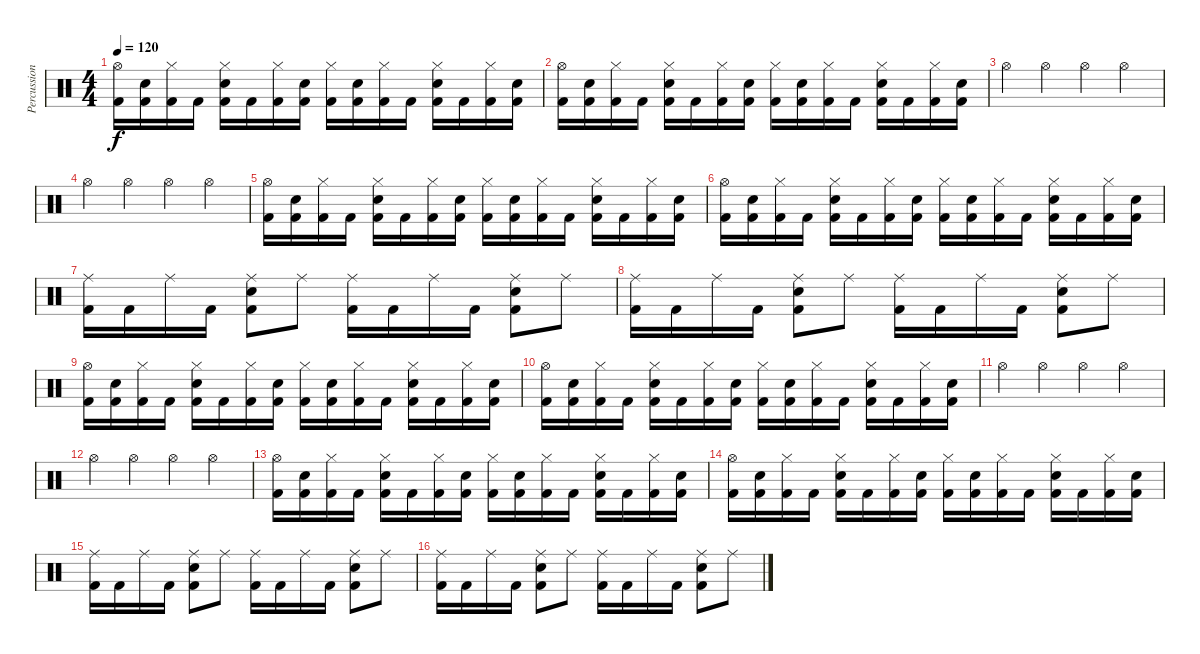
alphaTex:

\track ("Percussions" "Percussion") {instrument percussion}
\staff {score}
\articulation defaults
\ts (4 4)
\tempo 120
\clef neutral
\ks c
("Hi-Hat (open)" "Kick (hit) 2").16{dy f} ("Electric Snare (hit)" "Kick (hit) 2").16 ("Hi-Hat (closed)" "Kick (hit) 2").16 "Kick (hit) 2".16 ("Electric Snare (hit)" "Hi-Hat (closed)" "Kick (hit) 2").16 "Kick (hit) 2".16 ("Hi-Hat (closed)" "Kick (hit) 2").16 ("Electric Snare (hit)" "Kick (hit) 2").16 ("Hi-Hat (closed)" "Kick (hit) 2").16 ("Electric Snare (hit)" "Kick (hit) 2").16 ("Hi-Hat (closed)" "Kick (hit) 2").16 "Kick (hit) 2".16 ("Electric Snare (hit)" "Hi-Hat (closed)" "Kick (hit) 2").16 "Kick (hit) 2".16 ("Hi-Hat (closed)" "Kick (hit) 2").16 ("Electric Snare (hit)" "Kick (hit) 2").16 |
("Hi-Hat (open)" "Kick (hit) 2").16 ("Electric Snare (hit)" "Kick (hit) 2").16 ("Hi-Hat (closed)" "Kick (hit) 2").16 "Kick (hit) 2".16 ("Electric Snare (hit)" "Hi-Hat (closed)" "Kick (hit) 2").16 "Kick (hit) 2".16 ("Hi-Hat (closed)" "Kick (hit) 2").16 ("Electric Snare (hit)" "Kick (hit) 2").16 ("Hi-Hat (closed)" "Kick (hit) 2").16 ("Electric Snare (hit)" "Kick (hit) 2").16 ("Hi-Hat (closed)" "Kick (hit) 2").16 "Kick (hit) 2".16 ("Electric Snare (hit)" "Hi-Hat (closed)" "Kick (hit) 2").16 "Kick (hit) 2".16 ("Hi-Hat (closed)" "Kick (hit) 2").16 ("Electric Snare (hit)" "Kick (hit) 2").16 |
"Hi-Hat (open)".4 "Hi-Hat (open)".4 "Hi-Hat (open)".4 "Hi-Hat (open)".4 |
"Hi-Hat (open)".4 "Hi-Hat (open)".4 "Hi-Hat (open)".4 "Hi-Hat (open)".4 |
("Hi-Hat (open)" "Kick (hit) 2").16 ("Electric Snare (hit)" "Kick (hit) 2").16 ("Hi-Hat (closed)" "Kick (hit) 2").16 "Kick (hit) 2".16 ("Electric Snare (hit)" "Hi-Hat (closed)" "Kick (hit) 2").16 "Kick (hit) 2".16 ("Hi-Hat (closed)" "Kick (hit) 2").16 ("Electric Snare (hit)" "Kick (hit) 2").16 ("Hi-Hat (closed)" "Kick (hit) 2").16 ("Electric Snare (hit)" "Kick (hit) 2").16 ("Hi-Hat (closed)" "Kick (hit) 2").16 "Kick (hit) 2".16 ("Electric Snare (hit)" "Hi-Hat (closed)" "Kick (hit) 2").16 "Kick (hit) 2".16 ("Hi-Hat (closed)" "Kick (hit) 2").16 ("Electric Snare (hit)" "Kick (hit) 2").16 |
("Hi-Hat (open)" "Kick (hit) 2").16 ("Electric Snare (hit)" "Kick (hit) 2").16 ("Hi-Hat (closed)" "Kick (hit) 2").16 "Kick (hit) 2".16 ("Electric Snare (hit)" "Hi-Hat (closed)" "Kick (hit) 2").16 "Kick (hit) 2".16 ("Hi-Hat (closed)" "Kick (hit) 2").16 ("Electric Snare (hit)" "Kick (hit) 2").16 ("Hi-Hat (closed)" "Kick (hit) 2").16 ("Electric Snare (hit)" "Kick (hit) 2").16 ("Hi-Hat (closed)" "Kick (hit) 2").16 "Kick (hit) 2".16 ("Electric Snare (hit)" "Hi-Hat (closed)" "Kick (hit) 2").16 "Kick (hit) 2".16 ("Hi-Hat (closed)" "Kick (hit) 2").16 ("Electric Snare (hit)" "Kick (hit) 2").16 |
("Ride (middle)" "Kick (hit) 2").16 "Kick (hit) 2".16 "Ride (middle)".16 "Kick (hit) 2".16 ("Electric Snare (hit)" "Ride (middle)" "Kick (hit) 2").8 "Ride (middle)".8 ("Ride (middle)" "Kick (hit) 2").16 "Kick (hit) 2".16 "Ride (middle)".16 "Kick (hit) 2".16 ("Electric Snare (hit)" "Ride (middle)" "Kick (hit) 2").8 "Ride (middle)".8 |
("Ride (middle)" "Kick (hit) 2").16 "Kick (hit) 2".16 "Ride (middle)".16 "Kick (hit) 2".16 ("Electric Snare (hit)" "Ride (middle)" "Kick (hit) 2").8 "Ride (middle)".8 ("Ride (middle)" "Kick (hit) 2").16 "Kick (hit) 2".16 "Ride (middle)".16 "Kick (hit) 2".16 ("Electric Snare (hit)" "Ride (middle)" "Kick (hit) 2").8 "Ride (middle)".8 |
("Hi-Hat (open)" "Kick (hit) 2").16 ("Electric Snare (hit)" "Kick (hit) 2").16 ("Hi-Hat (closed)" "Kick (hit) 2").16 "Kick (hit) 2".16 ("Electric Snare (hit)" "Hi-Hat (closed)" "Kick (hit) 2").16 "Kick (hit) 2".16 ("Hi-Hat (closed)" "Kick (hit) 2").16 ("Electric Snare (hit)" "Kick (hit) 2").16 ("Hi-Hat (closed)" "Kick (hit) 2").16 ("Electric Snare (hit)" "Kick (hit) 2").16 ("Hi-Hat (closed)" "Kick (hit) 2").16 "Kick (hit) 2".16 ("Electric Snare (hit)" "Hi-Hat (closed)" "Kick (hit) 2").16 "Kick (hit) 2".16 ("Hi-Hat (closed)" "Kick (hit) 2").16 ("Electric Snare (hit)" "Kick (hit) 2").16 |
("Hi-Hat (open)" "Kick (hit) 2").16 ("Electric Snare (hit)" "Kick (hit) 2").16 ("Hi-Hat (closed)" "Kick (hit) 2").16 "Kick (hit) 2".16 ("Electric Snare (hit)" "Hi-Hat (closed)" "Kick (hit) 2").16 "Kick (hit) 2".16 ("Hi-Hat (closed)" "Kick (hit) 2").16 ("Electric Snare (hit)" "Kick (hit) 2").16 ("Hi-Hat (closed)" "Kick (hit) 2").16 ("Electric Snare (hit)" "Kick (hit) 2").16 ("Hi-Hat (closed)" "Kick (hit) 2").16 "Kick (hit) 2".16 ("Electric Snare (hit)" "Hi-Hat (closed)" "Kick (hit) 2").16 "Kick (hit) 2".16 ("Hi-Hat (closed)" "Kick (hit) 2").16 ("Electric Snare (hit)" "Kick (hit) 2").16 |
"Hi-Hat (open)".4 "Hi-Hat (open)".4 "Hi-Hat (open)".4 "Hi-Hat (open)".4 |
"Hi-Hat (open)".4 "Hi-Hat (open)".4 "Hi-Hat (open)".4 "Hi-Hat (open)".4 |
("Hi-Hat (open)" "Kick (hit) 2").16 ("Electric Snare (hit)" "Kick (hit) 2").16 ("Hi-Hat (closed)" "Kick (hit) 2").16 "Kick (hit) 2".16 ("Electric Snare (hit)" "Hi-Hat (closed)" "Kick (hit) 2").16 "Kick (hit) 2".16 ("Hi-Hat (closed)" "Kick (hit) 2").16 ("Electric Snare (hit)" "Kick (hit) 2").16 ("Hi-Hat (closed)" "Kick (hit) 2").16 ("Electric Snare (hit)" "Kick (hit) 2").16 ("Hi-Hat (closed)" "Kick (hit) 2").16 "Kick (hit) 2".16 ("Electric Snare (hit)" "Hi-Hat (closed)" "Kick (hit) 2").16 "Kick (hit) 2".16 ("Hi-Hat (closed)" "Kick (hit) 2").16 ("Electric Snare (hit)" "Kick (hit) 2").16 |
("Hi-Hat (open)" "Kick (hit) 2").16 ("Electric Snare (hit)" "Kick (hit) 2").16 ("Hi-Hat (closed)" "Kick (hit) 2").16 "Kick (hit) 2".16 ("Electric Snare (hit)" "Hi-Hat (closed)" "Kick (hit) 2").16 "Kick (hit) 2".16 ("Hi-Hat (closed)" "Kick (hit) 2").16 ("Electric Snare (hit)" "Kick (hit) 2").16 ("Hi-Hat (closed)" "Kick (hit) 2").16 ("Electric Snare (hit)" "Kick (hit) 2").16 ("Hi-Hat (closed)" "Kick (hit) 2").16 "Kick (hit) 2".16 ("Electric Snare (hit)" "Hi-Hat (closed)" "Kick (hit) 2").16 "Kick (hit) 2".16 ("Hi-Hat (closed)" "Kick (hit) 2").16 ("Electric Snare (hit)" "Kick (hit) 2").16 |
("Ride (middle)" "Kick (hit) 2").16 "Kick (hit) 2".16 "Ride (middle)".16 "Kick (hit) 2".16 ("Electric Snare (hit)" "Ride (middle)" "Kick (hit) 2").8 "Ride (middle)".8 ("Ride (middle)" "Kick (hit) 2").16 "Kick (hit) 2".16 "Ride (middle)".16 "Kick (hit) 2".16 ("Electric Snare (hit)" "Ride (middle)" "Kick (hit) 2").8 "Ride (middle)".8 |
("Ride (middle)" "Kick (hit) 2").16 "Kick (hit) 2".16 "Ride (middle)".16 "Kick (hit) 2".16 ("Electric Snare (hit)" "Ride (middle)" "Kick (hit) 2").8 "Ride (middle)".8 ("Ride (middle)" "Kick (hit) 2").16 "Kick (hit) 2".16 "Ride (middle)".16 "Kick (hit) 2".16 ("Electric Snare (hit)" "Ride (middle)" "Kick (hit) 2").8 "Ride (middle)".8
